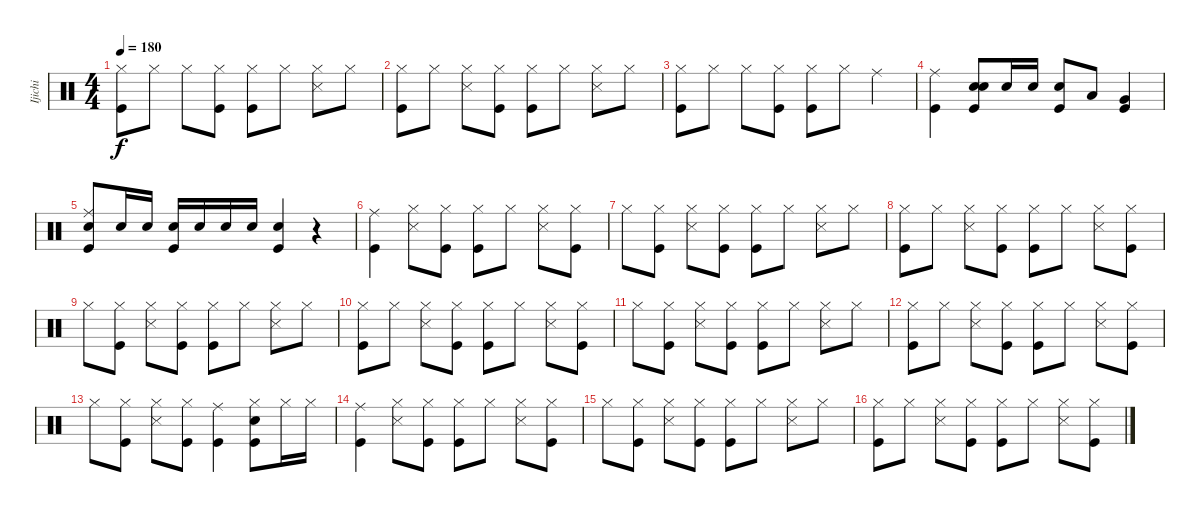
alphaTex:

\track ("Ijichi" "Ijichi") {instrument percussion}
\staff {score}
\articulation defaults
\ts (4 4)
\tempo 180
\clef neutral
\ks c
("Hi-Hat (closed)" "Kick (hit)").8{dy f} "Hi-Hat (closed)".8 "Hi-Hat (closed)".8 ("Hi-Hat (closed)" "Kick (hit)").8 ("Hi-Hat (closed)" "Kick (hit)").8 "Hi-Hat (closed)".8 ("Hi-Hat (closed)" "Snare (side stick) 3").8 "Hi-Hat (closed)".8 |
("Hi-Hat (closed)" "Kick (hit)").8 "Hi-Hat (closed)".8 ("Hi-Hat (closed)" "Snare (side stick) 3").8 ("Hi-Hat (closed)" "Kick (hit)").8 ("Hi-Hat (closed)" "Kick (hit)").8 "Hi-Hat (closed)".8 ("Hi-Hat (closed)" "Snare (side stick) 3").8 "Hi-Hat (closed)".8 |
("Hi-Hat (closed)" "Kick (hit)").8 "Hi-Hat (closed)".8 "Hi-Hat (closed)".8 ("Hi-Hat (closed)" "Kick (hit)").8 ("Hi-Hat (closed)" "Kick (hit)").8 "Hi-Hat (closed)".8 "Ride (middle)".4 |
("Ride (middle)" "Kick (hit)").4 ("Snare (hit) 2" "Snare (hit) 2" "Kick (hit)").8 "Snare (hit) 2".16 "Snare (hit) 2".16 ("Snare (hit) 2" "Kick (hit)").8 "Low Tom (hit)".8 ("Very Low Tom (hit)" "Kick (hit)").4 |
("Ride (middle)" "Snare (hit) 2" "Kick (hit)").8 "Snare (hit) 2".16 "Snare (hit) 2".16 ("Snare (hit) 2" "Kick (hit)").16 "Snare (hit) 2".16 "Snare (hit) 2".16 "Snare (hit) 2".16 ("Snare (hit) 2" "Kick (hit)").4 r.4 |
("Ride (middle)" "Kick (hit)").4 ("Snare (side stick) 3" "Hi-Hat (closed)").8 ("Kick (hit)" "Hi-Hat (closed)").8 ("Kick (hit)" "Hi-Hat (closed)").8 "Hi-Hat (closed)".8 ("Snare (side stick) 3" "Hi-Hat (closed)").8 ("Kick (hit)" "Hi-Hat (closed)").8 |
"Hi-Hat (closed)".8 ("Kick (hit)" "Hi-Hat (closed)").8 ("Snare (side stick) 3" "Hi-Hat (closed)").8 ("Kick (hit)" "Hi-Hat (closed)").8 ("Kick (hit)" "Hi-Hat (closed)").8 "Hi-Hat (closed)".8 ("Snare (side stick) 3" "Hi-Hat (closed)").8 "Hi-Hat (closed)".8 |
("Hi-Hat (closed)" "Kick (hit)").8 "Hi-Hat (closed)".8 ("Hi-Hat (closed)" "Snare (side stick) 3").8 ("Hi-Hat (closed)" "Kick (hit)").8 ("Hi-Hat (closed)" "Kick (hit)").8 "Hi-Hat (closed)".8 ("Hi-Hat (closed)" "Snare (side stick) 3").8 ("Hi-Hat (closed)" "Kick (hit)").8 |
"Hi-Hat (closed)".8 ("Hi-Hat (closed)" "Kick (hit)").8 ("Hi-Hat (closed)" "Snare (side stick) 3").8 ("Hi-Hat (closed)" "Kick (hit)").8 ("Hi-Hat (closed)" "Kick (hit)").8 "Hi-Hat (closed)".8 ("Hi-Hat (closed)" "Snare (side stick) 3").8 "Hi-Hat (closed)".8 |
("Hi-Hat (closed)" "Kick (hit)").8 "Hi-Hat (closed)".8 ("Hi-Hat (closed)" "Snare (side stick) 3").8 ("Hi-Hat (closed)" "Kick (hit)").8 ("Hi-Hat (closed)" "Kick (hit)").8 "Hi-Hat (closed)".8 ("Hi-Hat (closed)" "Snare (side stick) 3").8 ("Hi-Hat (closed)" "Kick (hit)").8 |
"Hi-Hat (closed)".8 ("Hi-Hat (closed)" "Kick (hit)").8 ("Hi-Hat (closed)" "Snare (side stick) 3").8 ("Hi-Hat (closed)" "Kick (hit)").8 ("Hi-Hat (closed)" "Kick (hit)").8 "Hi-Hat (closed)".8 ("Hi-Hat (closed)" "Snare (side stick) 3").8 "Hi-Hat (closed)".8 |
("Hi-Hat (closed)" "Kick (hit)").8 "Hi-Hat (closed)".8 ("Hi-Hat (closed)" "Snare (side stick) 3").8 ("Hi-Hat (closed)" "Kick (hit)").8 ("Hi-Hat (closed)" "Kick (hit)").8 "Hi-Hat (closed)".8 ("Hi-Hat (closed)" "Snare (side stick) 3").8 ("Hi-Hat (closed)" "Kick (hit)").8 |
"Hi-Hat (closed)".8 ("Hi-Hat (closed)" "Kick (hit)").8 ("Hi-Hat (closed)" "Snare (side stick) 3").8 ("Hi-Hat (closed)" "Kick (hit)").8 ("Ride (middle)" "Kick (hit)").4 ("Hi-Hat (closed)" "Snare (hit) 2" "Kick (hit)").8 "Hi-Hat (closed)".16 "Hi-Hat (closed)".16 |
("Ride (middle)" "Kick (hit)").4 ("Hi-Hat (closed)" "Snare (side stick) 3").8 ("Hi-Hat (closed)" "Kick (hit)").8 ("Hi-Hat (closed)" "Kick (hit)").8 "Hi-Hat (closed)".8 ("Hi-Hat (closed)" "Snare (side stick) 3").8 ("Hi-Hat (closed)" "Kick (hit)").8 |
"Hi-Hat (closed)".8 ("Hi-Hat (closed)" "Kick (hit)").8 ("Hi-Hat (closed)" "Snare (side stick) 3").8 ("Hi-Hat (closed)" "Kick (hit)").8 ("Hi-Hat (closed)" "Kick (hit)").8 "Hi-Hat (closed)".8 ("Hi-Hat (closed)" "Snare (side stick) 3").8 "Hi-Hat (closed)".8 |
("Hi-Hat (closed)" "Kick (hit)").8 "Hi-Hat (closed)".8 ("Hi-Hat (closed)" "Snare (side stick) 3").8 ("Hi-Hat (closed)" "Kick (hit)").8 ("Hi-Hat (closed)" "Kick (hit)").8 "Hi-Hat (closed)".8 ("Hi-Hat (closed)" "Snare (side stick) 3").8 ("Hi-Hat (closed)" "Kick (hit)").8
